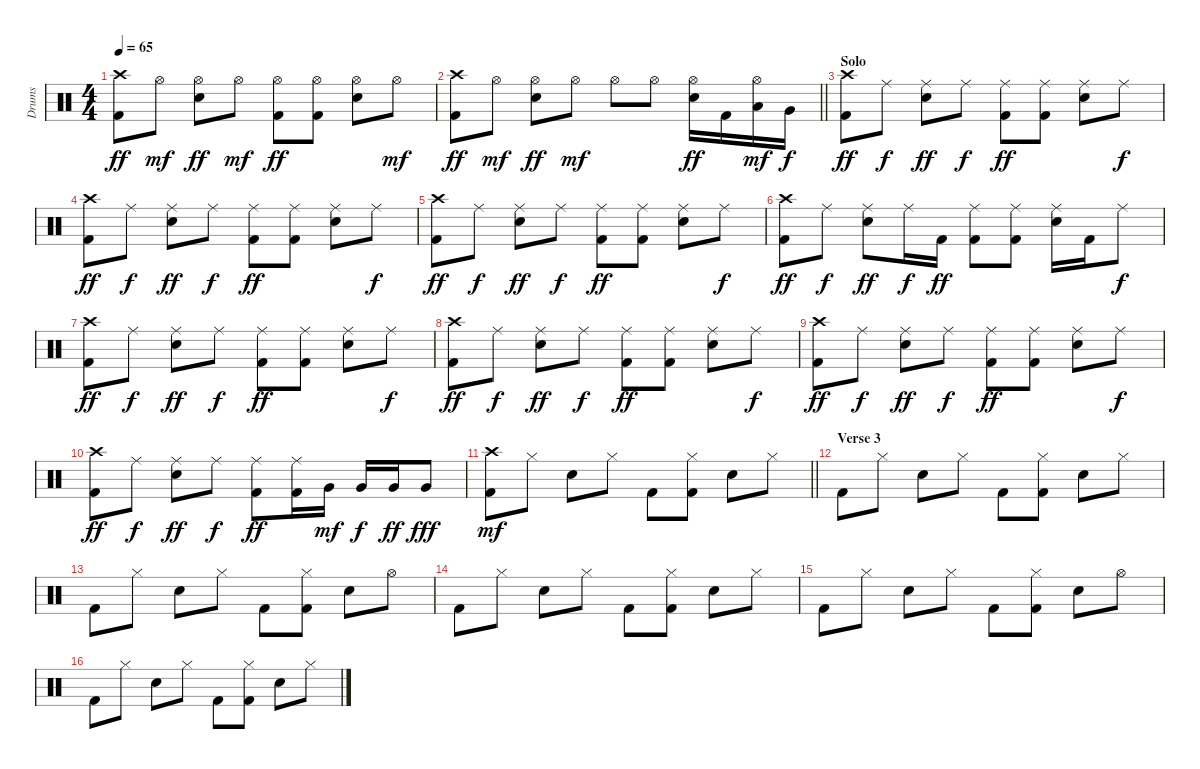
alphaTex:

\track ("Drums" "Drums") {instrument percussion}
\staff {score}
\articulation defaults
\ts (4 4)
\tempo 65
\clef neutral
\ks c
("Crash high (hit)" "Kick (hit) 2").8{dy ff} "Hi-Hat (open)".8{dy mf} ("Hi-Hat (open)" "Electric Snare (hit)").8{dy ff} "Hi-Hat (open)".8{dy mf} ("Hi-Hat (open)" "Kick (hit) 2").8{dy ff} ("Hi-Hat (open)" "Kick (hit) 2").8 ("Hi-Hat (open)" "Electric Snare (hit)").8 "Hi-Hat (open)".8{dy mf} |
\barLineRight lightlight
("Crash high (hit)" "Kick (hit) 2").8{dy ff} "Hi-Hat (open)".8{dy mf} ("Hi-Hat (open)" "Electric Snare (hit)").8{dy ff} "Hi-Hat (open)".8{dy mf} "Hi-Hat (open)".8 "Hi-Hat (open)".8 ("Hi-Hat (open)" "Electric Snare (hit)").16{dy ff} "Kick (hit) 2".16 ("Hi-Hat (open)" "Low Tom (hit)").16{dy mf} "Very Low Tom (hit)".16{dy f} |
\section ("" "Solo")
("Crash high (hit)" "Kick (hit) 2").8{dy ff} "Ride (middle)".8{dy f} ("Ride (middle)" "Electric Snare (hit)").8{dy ff} "Ride (middle)".8{dy f} ("Ride (middle)" "Kick (hit) 2").8{dy ff} ("Ride (middle)" "Kick (hit) 2").8 ("Ride (middle)" "Electric Snare (hit)").8 "Ride (middle)".8{dy f} |
("Crash high (hit)" "Kick (hit) 2").8{dy ff} "Ride (middle)".8{dy f} ("Ride (middle)" "Electric Snare (hit)").8{dy ff} "Ride (middle)".8{dy f} ("Ride (middle)" "Kick (hit) 2").8{dy ff} ("Ride (middle)" "Kick (hit) 2").8 ("Ride (middle)" "Electric Snare (hit)").8 "Ride (middle)".8{dy f} |
("Crash high (hit)" "Kick (hit) 2").8{dy ff} "Ride (middle)".8{dy f} ("Ride (middle)" "Electric Snare (hit)").8{dy ff} "Ride (middle)".8{dy f} ("Ride (middle)" "Kick (hit) 2").8{dy ff} ("Ride (middle)" "Kick (hit) 2").8 ("Ride (middle)" "Electric Snare (hit)").8 "Ride (middle)".8{dy f} |
("Crash high (hit)" "Kick (hit) 2").8{dy ff} "Ride (middle)".8{dy f} ("Ride (middle)" "Electric Snare (hit)").8{dy ff} "Ride (middle)".16{dy f} "Kick (hit) 2".16{dy ff} ("Ride (middle)" "Kick (hit) 2").8 ("Ride (middle)" "Kick (hit) 2").8 ("Ride (middle)" "Electric Snare (hit)").16 "Kick (hit) 2".16 "Ride (middle)".8{dy f} |
("Crash high (hit)" "Kick (hit) 2").8{dy ff} "Ride (middle)".8{dy f} ("Ride (middle)" "Electric Snare (hit)").8{dy ff} "Ride (middle)".8{dy f} ("Ride (middle)" "Kick (hit) 2").8{dy ff} ("Ride (middle)" "Kick (hit) 2").8 ("Ride (middle)" "Electric Snare (hit)").8 "Ride (middle)".8{dy f} |
("Crash high (hit)" "Kick (hit) 2").8{dy ff} "Ride (middle)".8{dy f} ("Ride (middle)" "Electric Snare (hit)").8{dy ff} "Ride (middle)".8{dy f} ("Ride (middle)" "Kick (hit) 2").8{dy ff} ("Ride (middle)" "Kick (hit) 2").8 ("Ride (middle)" "Electric Snare (hit)").8 "Ride (middle)".8{dy f} |
("Crash high (hit)" "Kick (hit) 2").8{dy ff} "Ride (middle)".8{dy f} ("Ride (middle)" "Electric Snare (hit)").8{dy ff} "Ride (middle)".8{dy f} ("Ride (middle)" "Kick (hit) 2").8{dy ff} ("Ride (middle)" "Kick (hit) 2").8 ("Ride (middle)" "Electric Snare (hit)").8 "Ride (middle)".8{dy f} |
("Crash high (hit)" "Kick (hit) 2").8{dy ff} "Ride (middle)".8{dy f} ("Ride (middle)" "Electric Snare (hit)").8{dy ff} "Ride (middle)".8{dy f} ("Ride (middle)" "Kick (hit) 2").8{dy ff} ("Ride (middle)" "Kick (hit) 2").16 "Very Low Tom (hit)".16{dy mf} "Very Low Tom (hit)".16{dy f} "Very Low Tom (hit)".16{dy ff} "Very Low Tom (hit)".8{dy fff} |
\barLineRight lightlight
("Crash high (hit)" "Kick (hit) 2").8{dy mf} "Hi-Hat (closed)".8 "Electric Snare (hit)".8 "Hi-Hat (closed)".8 "Kick (hit) 2".8 ("Hi-Hat (closed)" "Kick (hit) 2").8 "Electric Snare (hit)".8 "Hi-Hat (closed)".8 |
\section ("" "Verse 3")
"Kick (hit) 2".8 "Hi-Hat (closed)".8 "Electric Snare (hit)".8 "Hi-Hat (closed)".8 "Kick (hit) 2".8 ("Hi-Hat (closed)" "Kick (hit) 2").8 "Electric Snare (hit)".8 "Hi-Hat (closed)".8 |
"Kick (hit) 2".8 "Hi-Hat (closed)".8 "Electric Snare (hit)".8 "Hi-Hat (closed)".8 "Kick (hit) 2".8 ("Hi-Hat (closed)" "Kick (hit) 2").8 "Electric Snare (hit)".8 "Hi-Hat (open)".8 |
"Kick (hit) 2".8 "Hi-Hat (closed)".8 "Electric Snare (hit)".8 "Hi-Hat (closed)".8 "Kick (hit) 2".8 ("Hi-Hat (closed)" "Kick (hit) 2").8 "Electric Snare (hit)".8 "Hi-Hat (closed)".8 |
"Kick (hit) 2".8 "Hi-Hat (closed)".8 "Electric Snare (hit)".8 "Hi-Hat (closed)".8 "Kick (hit) 2".8 ("Hi-Hat (closed)" "Kick (hit) 2").8 "Electric Snare (hit)".8 "Hi-Hat (open)".8 |
"Kick (hit) 2".8 "Hi-Hat (closed)".8 "Electric Snare (hit)".8 "Hi-Hat (closed)".8 "Kick (hit) 2".8 ("Hi-Hat (closed)" "Kick (hit) 2").8 "Electric Snare (hit)".8 "Hi-Hat (closed)".8
